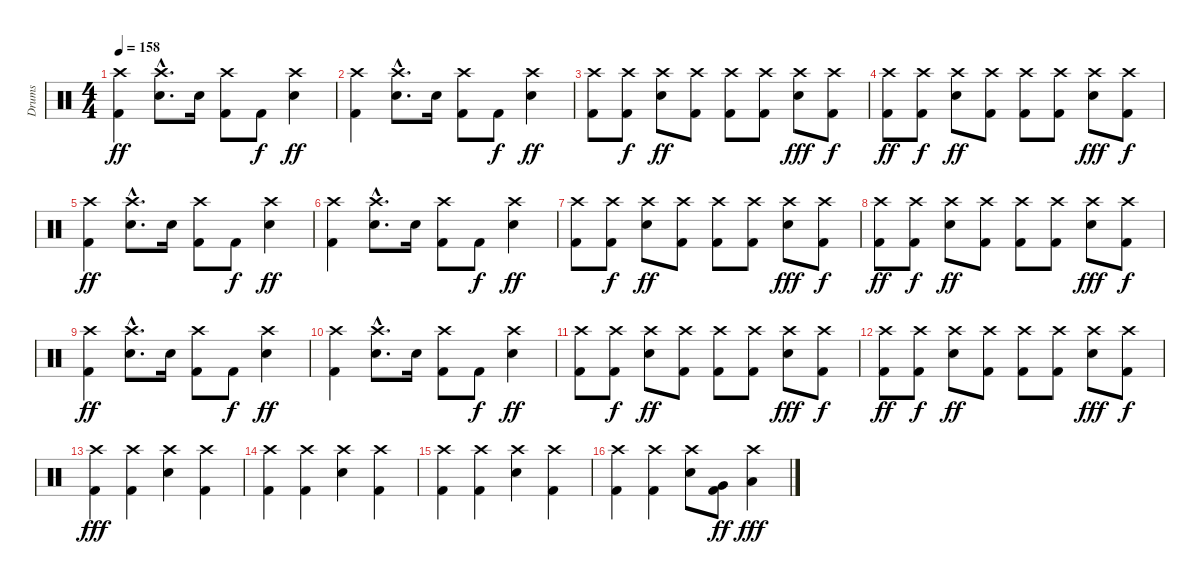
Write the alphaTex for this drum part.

\track ("Drums" "Drums") {instrument percussion}
\staff {score}
\articulation defaults
\ts (4 4)
\tempo 158
\clef neutral
\ks c
("Crash high (hit)" "Kick (hit) 2").4{dy ff} ("Crash high (hit)"{hac} "Snare (hit) 2"{hac}).8{d} "Snare (hit) 2".16 ("Crash high (hit)" "Kick (hit) 2").8 "Kick (hit) 2".8{dy f} ("Crash high (hit)" "Snare (hit) 2").4{dy ff} |
("Crash high (hit)" "Kick (hit) 2").4 ("Crash high (hit)"{hac} "Snare (hit) 2"{hac}).8{d} "Snare (hit) 2".16 ("Crash high (hit)" "Kick (hit) 2").8 "Kick (hit) 2".8{dy f} ("Crash high (hit)" "Snare (hit) 2").4{dy ff} |
("Crash high (hit)" "Kick (hit) 2").8 ("Crash high (hit)" "Kick (hit) 2").8{dy f} ("Crash high (hit)" "Snare (hit) 2").8{dy ff} ("Crash high (hit)" "Kick (hit) 2").8 ("Crash high (hit)" "Kick (hit) 2").8 ("Crash high (hit)" "Kick (hit) 2").8 ("Crash high (hit)" "Snare (hit) 2").8{dy fff} ("Crash high (hit)" "Kick (hit) 2").8{dy f} |
("Crash high (hit)" "Kick (hit) 2").8{dy ff} ("Crash high (hit)" "Kick (hit) 2").8{dy f} ("Crash high (hit)" "Snare (hit) 2").8{dy ff} ("Crash high (hit)" "Kick (hit) 2").8 ("Crash high (hit)" "Kick (hit) 2").8 ("Crash high (hit)" "Kick (hit) 2").8 ("Crash high (hit)" "Snare (hit) 2").8{dy fff} ("Crash high (hit)" "Kick (hit) 2").8{dy f} |
("Crash high (hit)" "Kick (hit) 2").4{dy ff} ("Crash high (hit)"{hac} "Snare (hit) 2"{hac}).8{d} "Snare (hit) 2".16 ("Crash high (hit)" "Kick (hit) 2").8 "Kick (hit) 2".8{dy f} ("Crash high (hit)" "Snare (hit) 2").4{dy ff} |
("Crash high (hit)" "Kick (hit) 2").4 ("Crash high (hit)"{hac} "Snare (hit) 2"{hac}).8{d} "Snare (hit) 2".16 ("Crash high (hit)" "Kick (hit) 2").8 "Kick (hit) 2".8{dy f} ("Crash high (hit)" "Snare (hit) 2").4{dy ff} |
("Crash high (hit)" "Kick (hit) 2").8 ("Crash high (hit)" "Kick (hit) 2").8{dy f} ("Crash high (hit)" "Snare (hit) 2").8{dy ff} ("Crash high (hit)" "Kick (hit) 2").8 ("Crash high (hit)" "Kick (hit) 2").8 ("Crash high (hit)" "Kick (hit) 2").8 ("Crash high (hit)" "Snare (hit) 2").8{dy fff} ("Crash high (hit)" "Kick (hit) 2").8{dy f} |
("Crash high (hit)" "Kick (hit) 2").8{dy ff} ("Crash high (hit)" "Kick (hit) 2").8{dy f} ("Crash high (hit)" "Snare (hit) 2").8{dy ff} ("Crash high (hit)" "Kick (hit) 2").8 ("Crash high (hit)" "Kick (hit) 2").8 ("Crash high (hit)" "Kick (hit) 2").8 ("Crash high (hit)" "Snare (hit) 2").8{dy fff} ("Crash high (hit)" "Kick (hit) 2").8{dy f} |
("Crash high (hit)" "Kick (hit) 2").4{dy ff} ("Crash high (hit)"{hac} "Snare (hit) 2"{hac}).8{d} "Snare (hit) 2".16 ("Crash high (hit)" "Kick (hit) 2").8 "Kick (hit) 2".8{dy f} ("Crash high (hit)" "Snare (hit) 2").4{dy ff} |
("Crash high (hit)" "Kick (hit) 2").4 ("Crash high (hit)"{hac} "Snare (hit) 2"{hac}).8{d} "Snare (hit) 2".16 ("Crash high (hit)" "Kick (hit) 2").8 "Kick (hit) 2".8{dy f} ("Crash high (hit)" "Snare (hit) 2").4{dy ff} |
("Crash high (hit)" "Kick (hit) 2").8 ("Crash high (hit)" "Kick (hit) 2").8{dy f} ("Crash high (hit)" "Snare (hit) 2").8{dy ff} ("Crash high (hit)" "Kick (hit) 2").8 ("Crash high (hit)" "Kick (hit) 2").8 ("Crash high (hit)" "Kick (hit) 2").8 ("Crash high (hit)" "Snare (hit) 2").8{dy fff} ("Crash high (hit)" "Kick (hit) 2").8{dy f} |
("Crash high (hit)" "Kick (hit) 2").8{dy ff} ("Crash high (hit)" "Kick (hit) 2").8{dy f} ("Crash high (hit)" "Snare (hit) 2").8{dy ff} ("Crash high (hit)" "Kick (hit) 2").8 ("Crash high (hit)" "Kick (hit) 2").8 ("Crash high (hit)" "Kick (hit) 2").8 ("Crash high (hit)" "Snare (hit) 2").8{dy fff} ("Crash high (hit)" "Kick (hit) 2").8{dy f} |
("Crash high (hit)" "Kick (hit) 2").4{dy fff} ("Crash high (hit)" "Kick (hit) 2").4 ("Crash high (hit)" "Snare (hit) 2").4 ("Crash high (hit)" "Kick (hit) 2").4 |
("Crash high (hit)" "Kick (hit) 2").4 ("Crash high (hit)" "Kick (hit) 2").4 ("Crash high (hit)" "Snare (hit) 2").4 ("Crash high (hit)" "Kick (hit) 2").4 |
("Crash high (hit)" "Kick (hit) 2").4 ("Crash high (hit)" "Kick (hit) 2").4 ("Crash high (hit)" "Snare (hit) 2").4 ("Crash high (hit)" "Kick (hit) 2").4 |
("Crash high (hit)" "Kick (hit) 2").4 ("Crash high (hit)" "Kick (hit) 2").4 ("Crash high (hit)" "Snare (hit) 2").8 ("Very Low Tom (hit)" "Kick (hit) 2").8{dy ff} ("Crash high (hit)" "Low Floor Tom (hit)").4{dy fff}
